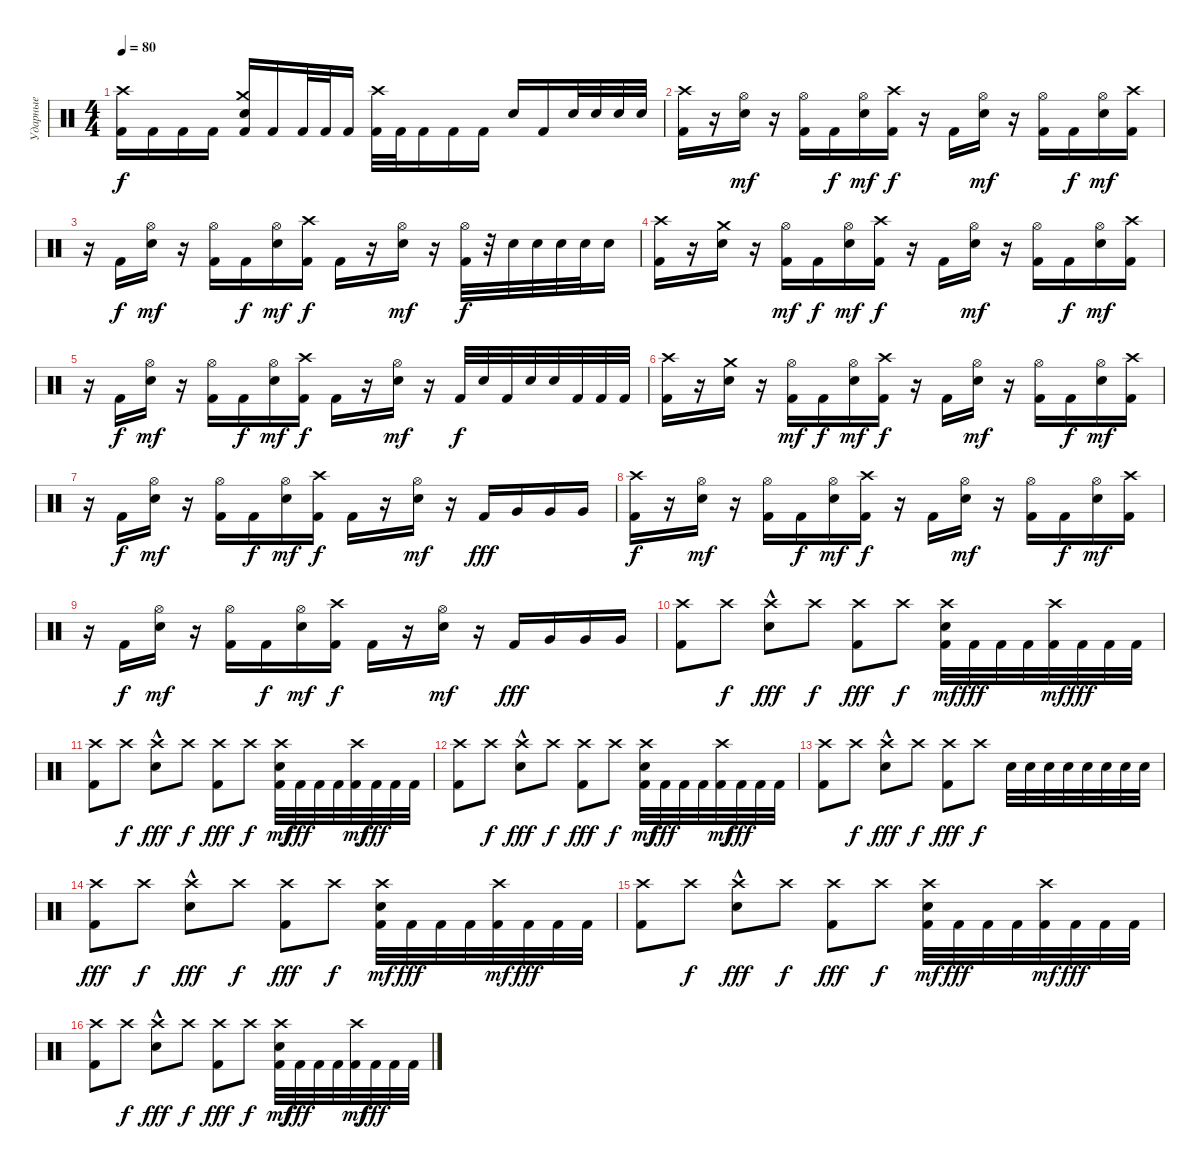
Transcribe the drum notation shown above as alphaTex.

\track ("Ударные" "Ударные") {instrument percussion}
\staff {score}
\articulation defaults
\ts (4 4)
\tempo 80
\clef neutral
\ks c
("Kick (hit) 2" "Crash high (hit)").16{dy f} "Kick (hit) 2".16 "Kick (hit) 2".16 "Kick (hit) 2".16 ("Kick (hit) 2" "Crash medium (hit)" "Electric Snare (hit)").16 "Kick (hit) 2".16 "Kick (hit) 2".32 "Kick (hit) 2".32 "Kick (hit) 2".16 ("Kick (hit) 2" "Crash high (hit)").32 "Kick (hit) 2".32 "Kick (hit) 2".16 "Kick (hit) 2".16 "Kick (hit) 2".16 "Electric Snare (hit)".16 "Kick (hit) 2".16 "Electric Snare (hit)".32 "Electric Snare (hit)".32 "Electric Snare (hit)".32 "Electric Snare (hit)".32 |
("Kick (hit) 2" "Crash high (hit)").16 r.16 ("Electric Snare (hit)" "Hi-Hat (open)").16{dy mf} r.16 ("Kick (hit) 2" "Hi-Hat (open)").16 "Kick (hit) 2".16{dy f} ("Electric Snare (hit)" "Hi-Hat (open)").16{dy mf} ("Crash high (hit)" "Kick (hit) 2").16{dy f} r.16 "Kick (hit) 2".16 ("Electric Snare (hit)" "Hi-Hat (open)").16{dy mf} r.16 ("Kick (hit) 2" "Hi-Hat (open)").16 "Kick (hit) 2".16{dy f} ("Electric Snare (hit)" "Hi-Hat (open)").16{dy mf} ("Crash high (hit)" "Kick (hit) 2").16 |
r.16 "Kick (hit) 2".16{dy f} ("Electric Snare (hit)" "Hi-Hat (open)").16{dy mf} r.16 ("Kick (hit) 2" "Hi-Hat (open)").16 "Kick (hit) 2".16{dy f} ("Electric Snare (hit)" "Hi-Hat (open)").16{dy mf} ("Crash high (hit)" "Kick (hit) 2").16{dy f} "Kick (hit) 2".16 r.16 ("Electric Snare (hit)" "Hi-Hat (open)").16{dy mf} r.16 ("Hi-Hat (open)" "Kick (hit) 2").32{dy f} r.32 "Electric Snare (hit)".32 "Electric Snare (hit)".32 "Electric Snare (hit)".32 "Electric Snare (hit)".32 "Electric Snare (hit)".16 |
("Kick (hit) 2" "Crash high (hit)").16 r.16 ("Electric Snare (hit)" "Crash medium (hit)").16 r.16 ("Kick (hit) 2" "Hi-Hat (open)").16{dy mf} "Kick (hit) 2".16{dy f} ("Electric Snare (hit)" "Hi-Hat (open)").16{dy mf} ("Crash high (hit)" "Kick (hit) 2").16{dy f} r.16 "Kick (hit) 2".16 ("Electric Snare (hit)" "Hi-Hat (open)").16{dy mf} r.16 ("Kick (hit) 2" "Hi-Hat (open)").16 "Kick (hit) 2".16{dy f} ("Electric Snare (hit)" "Hi-Hat (open)").16{dy mf} ("Crash high (hit)" "Kick (hit) 2").16 |
r.16 "Kick (hit) 2".16{dy f} ("Electric Snare (hit)" "Hi-Hat (open)").16{dy mf} r.16 ("Kick (hit) 2" "Hi-Hat (open)").16 "Kick (hit) 2".16{dy f} ("Electric Snare (hit)" "Hi-Hat (open)").16{dy mf} ("Crash high (hit)" "Kick (hit) 2").16{dy f} "Kick (hit) 2".16 r.16 ("Electric Snare (hit)" "Hi-Hat (open)").16{dy mf} r.16 "Kick (hit) 2".32{dy f} "Electric Snare (hit)".32 "Kick (hit) 2".32 "Electric Snare (hit)".32 "Electric Snare (hit)".32 "Kick (hit) 2".32 "Kick (hit) 2".32 "Kick (hit) 2".32 |
("Kick (hit) 2" "Crash high (hit)").16 r.16 ("Electric Snare (hit)" "Crash medium (hit)").16 r.16 ("Kick (hit) 2" "Hi-Hat (open)").16{dy mf} "Kick (hit) 2".16{dy f} ("Electric Snare (hit)" "Hi-Hat (open)").16{dy mf} ("Crash high (hit)" "Kick (hit) 2").16{dy f} r.16 "Kick (hit) 2".16 ("Electric Snare (hit)" "Hi-Hat (open)").16{dy mf} r.16 ("Kick (hit) 2" "Hi-Hat (open)").16 "Kick (hit) 2".16{dy f} ("Electric Snare (hit)" "Hi-Hat (open)").16{dy mf} ("Crash high (hit)" "Kick (hit) 2").16 |
r.16 "Kick (hit) 2".16{dy f} ("Electric Snare (hit)" "Hi-Hat (open)").16{dy mf} r.16 ("Kick (hit) 2" "Hi-Hat (open)").16 "Kick (hit) 2".16{dy f} ("Electric Snare (hit)" "Hi-Hat (open)").16{dy mf} ("Crash high (hit)" "Kick (hit) 2").16{dy f} "Kick (hit) 2".16 r.16 ("Electric Snare (hit)" "Hi-Hat (open)").16{dy mf} r.16 "Kick (hit) 2".16{dy fff} "Very Low Tom (hit)".16 "Very Low Tom (hit)".16 "Very Low Tom (hit)".16 |
("Kick (hit) 2" "Crash high (hit)").16{dy f} r.16 ("Electric Snare (hit)" "Hi-Hat (open)").16{dy mf} r.16 ("Kick (hit) 2" "Hi-Hat (open)").16 "Kick (hit) 2".16{dy f} ("Electric Snare (hit)" "Hi-Hat (open)").16{dy mf} ("Crash high (hit)" "Kick (hit) 2").16{dy f} r.16 "Kick (hit) 2".16 ("Electric Snare (hit)" "Hi-Hat (open)").16{dy mf} r.16 ("Kick (hit) 2" "Hi-Hat (open)").16 "Kick (hit) 2".16{dy f} ("Electric Snare (hit)" "Hi-Hat (open)").16{dy mf} ("Crash high (hit)" "Kick (hit) 2").16 |
r.16 "Kick (hit) 2".16{dy f} ("Electric Snare (hit)" "Hi-Hat (open)").16{dy mf} r.16 ("Kick (hit) 2" "Hi-Hat (open)").16 "Kick (hit) 2".16{dy f} ("Electric Snare (hit)" "Hi-Hat (open)").16{dy mf} ("Crash high (hit)" "Kick (hit) 2").16{dy f} "Kick (hit) 2".16 r.16 ("Electric Snare (hit)" "Hi-Hat (open)").16{dy mf} r.16 "Kick (hit) 2".16{dy fff} "Very Low Tom (hit)".16 "Very Low Tom (hit)".16 "Very Low Tom (hit)".16 |
("Crash high (hit)" "Kick (hit) 2").8 "Crash high (hit)".8{dy f} ("Crash high (hit)" "Electric Snare (hit)"{hac}).8{dy fff} "Crash high (hit)".8{dy f} ("Crash high (hit)" "Kick (hit) 2").8{dy fff} "Crash high (hit)".8{dy f} ("Electric Snare (hit)" "Kick (hit) 2" "Crash high (hit)").32{dy mf} "Kick (hit) 2".32{dy fff} "Kick (hit) 2".32 "Kick (hit) 2".32 ("Kick (hit) 2" "Crash high (hit)").32{dy mf} "Kick (hit) 2".32{dy fff} "Kick (hit) 2".32 "Kick (hit) 2".32 |
("Crash high (hit)" "Kick (hit) 2").8 "Crash high (hit)".8{dy f} ("Crash high (hit)" "Electric Snare (hit)"{hac}).8{dy fff} "Crash high (hit)".8{dy f} ("Crash high (hit)" "Kick (hit) 2").8{dy fff} "Crash high (hit)".8{dy f} ("Electric Snare (hit)" "Kick (hit) 2" "Crash high (hit)").32{dy mf} "Kick (hit) 2".32{dy fff} "Kick (hit) 2".32 "Kick (hit) 2".32 ("Kick (hit) 2" "Crash high (hit)").32{dy mf} "Kick (hit) 2".32{dy fff} "Kick (hit) 2".32 "Kick (hit) 2".32 |
("Crash high (hit)" "Kick (hit) 2").8 "Crash high (hit)".8{dy f} ("Crash high (hit)" "Electric Snare (hit)"{hac}).8{dy fff} "Crash high (hit)".8{dy f} ("Crash high (hit)" "Kick (hit) 2").8{dy fff} "Crash high (hit)".8{dy f} ("Electric Snare (hit)" "Kick (hit) 2" "Crash high (hit)").32{dy mf} "Kick (hit) 2".32{dy fff} "Kick (hit) 2".32 "Kick (hit) 2".32 ("Kick (hit) 2" "Crash high (hit)").32{dy mf} "Kick (hit) 2".32{dy fff} "Kick (hit) 2".32 "Kick (hit) 2".32 |
("Crash high (hit)" "Kick (hit) 2").8 "Crash high (hit)".8{dy f} ("Crash high (hit)" "Electric Snare (hit)"{hac}).8{dy fff} "Crash high (hit)".8{dy f} ("Crash high (hit)" "Kick (hit) 2").8{dy fff} "Crash high (hit)".8{dy f} "Electric Snare (hit)".32 "Electric Snare (hit)".32 "Electric Snare (hit)".32 "Electric Snare (hit)".32 "Electric Snare (hit)".32 "Electric Snare (hit)".32 "Electric Snare (hit)".32 "Electric Snare (hit)".32 |
("Crash high (hit)" "Kick (hit) 2").8{dy fff} "Crash high (hit)".8{dy f} ("Crash high (hit)" "Electric Snare (hit)"{hac}).8{dy fff} "Crash high (hit)".8{dy f} ("Crash high (hit)" "Kick (hit) 2").8{dy fff} "Crash high (hit)".8{dy f} ("Electric Snare (hit)" "Kick (hit) 2" "Crash high (hit)").32{dy mf} "Kick (hit) 2".32{dy fff} "Kick (hit) 2".32 "Kick (hit) 2".32 ("Kick (hit) 2" "Crash high (hit)").32{dy mf} "Kick (hit) 2".32{dy fff} "Kick (hit) 2".32 "Kick (hit) 2".32 |
("Crash high (hit)" "Kick (hit) 2").8 "Crash high (hit)".8{dy f} ("Crash high (hit)" "Electric Snare (hit)"{hac}).8{dy fff} "Crash high (hit)".8{dy f} ("Crash high (hit)" "Kick (hit) 2").8{dy fff} "Crash high (hit)".8{dy f} ("Electric Snare (hit)" "Kick (hit) 2" "Crash high (hit)").32{dy mf} "Kick (hit) 2".32{dy fff} "Kick (hit) 2".32 "Kick (hit) 2".32 ("Kick (hit) 2" "Crash high (hit)").32{dy mf} "Kick (hit) 2".32{dy fff} "Kick (hit) 2".32 "Kick (hit) 2".32 |
("Crash high (hit)" "Kick (hit) 2").8 "Crash high (hit)".8{dy f} ("Crash high (hit)" "Electric Snare (hit)"{hac}).8{dy fff} "Crash high (hit)".8{dy f} ("Crash high (hit)" "Kick (hit) 2").8{dy fff} "Crash high (hit)".8{dy f} ("Electric Snare (hit)" "Kick (hit) 2" "Crash high (hit)").32{dy mf} "Kick (hit) 2".32{dy fff} "Kick (hit) 2".32 "Kick (hit) 2".32 ("Kick (hit) 2" "Crash high (hit)").32{dy mf} "Kick (hit) 2".32{dy fff} "Kick (hit) 2".32 "Kick (hit) 2".32
